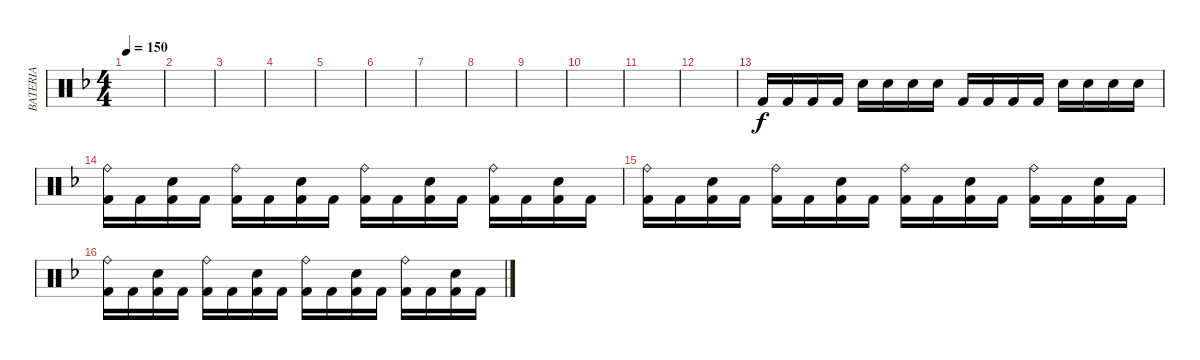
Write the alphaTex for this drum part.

\track ("BATERIA" "BATERIA") {instrument percussion}
\staff {score}
\articulation defaults
\ts (4 4)
\tempo 150
\clef neutral
\ks dminor
|
|
|
|
|
|
|
|
|
|
|
|
"Kick (hit) 2".16 "Kick (hit) 2".16 "Kick (hit) 2".16 "Kick (hit) 2".16 "Snare (hit) 2".16 "Snare (hit) 2".16 "Snare (hit) 2".16 "Snare (hit) 2".16 "Kick (hit) 2".16 "Kick (hit) 2".16 "Kick (hit) 2".16 "Kick (hit) 2".16 "Snare (hit) 2".16 "Snare (hit) 2".16 "Snare (hit) 2".16 "Snare (hit) 2".16 |
("Ride (bell)" "Kick (hit) 2").16 "Kick (hit) 2".16 ("Snare (hit) 2" "Kick (hit) 2").16 "Kick (hit) 2".16 ("Ride (bell)" "Kick (hit) 2").16 "Kick (hit) 2".16 ("Snare (hit) 2" "Kick (hit) 2").16 "Kick (hit) 2".16 ("Ride (bell)" "Kick (hit) 2").16 "Kick (hit) 2".16 ("Snare (hit) 2" "Kick (hit) 2").16 "Kick (hit) 2".16 ("Ride (bell)" "Kick (hit) 2").16 "Kick (hit) 2".16 ("Snare (hit) 2" "Kick (hit) 2").16 "Kick (hit) 2".16 |
("Ride (bell)" "Kick (hit) 2").16 "Kick (hit) 2".16 ("Snare (hit) 2" "Kick (hit) 2").16 "Kick (hit) 2".16 ("Ride (bell)" "Kick (hit) 2").16 "Kick (hit) 2".16 ("Snare (hit) 2" "Kick (hit) 2").16 "Kick (hit) 2".16 ("Ride (bell)" "Kick (hit) 2").16 "Kick (hit) 2".16 ("Snare (hit) 2" "Kick (hit) 2").16 "Kick (hit) 2".16 ("Ride (bell)" "Kick (hit) 2").16 "Kick (hit) 2".16 ("Snare (hit) 2" "Kick (hit) 2").16 "Kick (hit) 2".16 |
("Ride (bell)" "Kick (hit) 2").16 "Kick (hit) 2".16 ("Snare (hit) 2" "Kick (hit) 2").16 "Kick (hit) 2".16 ("Ride (bell)" "Kick (hit) 2").16 "Kick (hit) 2".16 ("Snare (hit) 2" "Kick (hit) 2").16 "Kick (hit) 2".16 ("Ride (bell)" "Kick (hit) 2").16 "Kick (hit) 2".16 ("Snare (hit) 2" "Kick (hit) 2").16 "Kick (hit) 2".16 ("Ride (bell)" "Kick (hit) 2").16 "Kick (hit) 2".16 ("Snare (hit) 2" "Kick (hit) 2").16 "Kick (hit) 2".16
